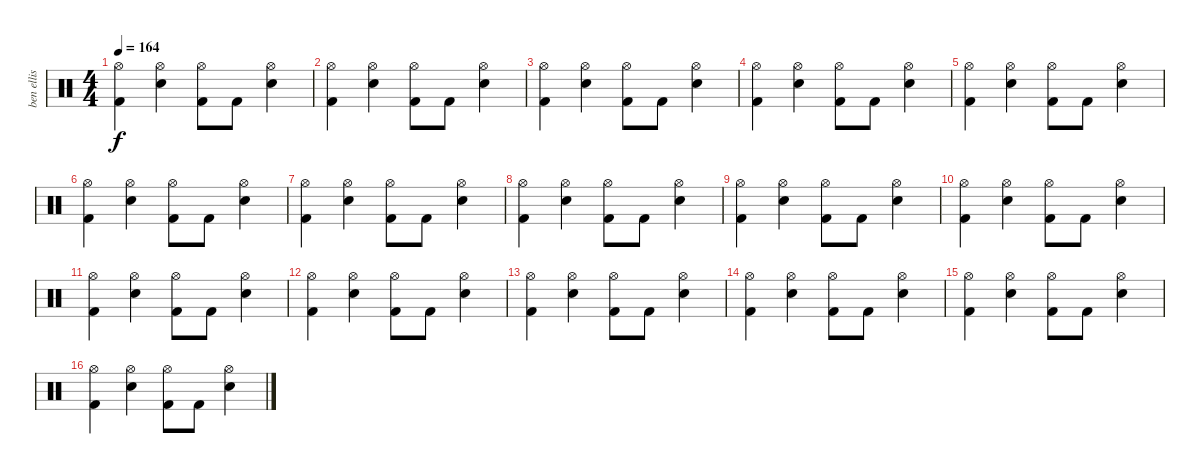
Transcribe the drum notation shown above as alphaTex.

\track ("ben ellis" "ben ellis") {instrument percussion}
\staff {score}
\articulation defaults
\ts (4 4)
\tempo 164
\clef neutral
\ks c
("Hi-Hat (open)" "Kick (hit) 2").4{dy f} ("Hi-Hat (open)" "Electric Snare (hit)").4 ("Hi-Hat (open)" "Kick (hit) 2").8 "Kick (hit) 2".8 ("Hi-Hat (open)" "Electric Snare (hit)").4 |
("Hi-Hat (open)" "Kick (hit) 2").4 ("Hi-Hat (open)" "Electric Snare (hit)").4 ("Hi-Hat (open)" "Kick (hit) 2").8 "Kick (hit) 2".8 ("Hi-Hat (open)" "Electric Snare (hit)").4 |
("Hi-Hat (open)" "Kick (hit) 2").4 ("Hi-Hat (open)" "Electric Snare (hit)").4 ("Hi-Hat (open)" "Kick (hit) 2").8 "Kick (hit) 2".8 ("Hi-Hat (open)" "Electric Snare (hit)").4 |
("Hi-Hat (open)" "Kick (hit) 2").4 ("Hi-Hat (open)" "Electric Snare (hit)").4 ("Hi-Hat (open)" "Kick (hit) 2").8 "Kick (hit) 2".8 ("Hi-Hat (open)" "Electric Snare (hit)").4 |
("Hi-Hat (open)" "Kick (hit) 2").4 ("Hi-Hat (open)" "Electric Snare (hit)").4 ("Hi-Hat (open)" "Kick (hit) 2").8 "Kick (hit) 2".8 ("Hi-Hat (open)" "Electric Snare (hit)").4 |
("Hi-Hat (open)" "Kick (hit) 2").4 ("Hi-Hat (open)" "Electric Snare (hit)").4 ("Hi-Hat (open)" "Kick (hit) 2").8 "Kick (hit) 2".8 ("Hi-Hat (open)" "Electric Snare (hit)").4 |
("Hi-Hat (open)" "Kick (hit) 2").4 ("Hi-Hat (open)" "Electric Snare (hit)").4 ("Hi-Hat (open)" "Kick (hit) 2").8 "Kick (hit) 2".8 ("Hi-Hat (open)" "Electric Snare (hit)").4 |
("Hi-Hat (open)" "Kick (hit) 2").4 ("Hi-Hat (open)" "Electric Snare (hit)").4 ("Hi-Hat (open)" "Kick (hit) 2").8 "Kick (hit) 2".8 ("Hi-Hat (open)" "Electric Snare (hit)").4 |
("Hi-Hat (open)" "Kick (hit) 2").4 ("Hi-Hat (open)" "Electric Snare (hit)").4 ("Hi-Hat (open)" "Kick (hit) 2").8 "Kick (hit) 2".8 ("Hi-Hat (open)" "Electric Snare (hit)").4 |
("Hi-Hat (open)" "Kick (hit) 2").4 ("Hi-Hat (open)" "Electric Snare (hit)").4 ("Hi-Hat (open)" "Kick (hit) 2").8 "Kick (hit) 2".8 ("Hi-Hat (open)" "Electric Snare (hit)").4 |
("Hi-Hat (open)" "Kick (hit) 2").4 ("Hi-Hat (open)" "Electric Snare (hit)").4 ("Hi-Hat (open)" "Kick (hit) 2").8 "Kick (hit) 2".8 ("Hi-Hat (open)" "Electric Snare (hit)").4 |
("Hi-Hat (open)" "Kick (hit) 2").4 ("Hi-Hat (open)" "Electric Snare (hit)").4 ("Hi-Hat (open)" "Kick (hit) 2").8 "Kick (hit) 2".8 ("Hi-Hat (open)" "Electric Snare (hit)").4 |
("Hi-Hat (open)" "Kick (hit) 2").4 ("Hi-Hat (open)" "Electric Snare (hit)").4 ("Hi-Hat (open)" "Kick (hit) 2").8 "Kick (hit) 2".8 ("Hi-Hat (open)" "Electric Snare (hit)").4 |
("Hi-Hat (open)" "Kick (hit) 2").4 ("Hi-Hat (open)" "Electric Snare (hit)").4 ("Hi-Hat (open)" "Kick (hit) 2").8 "Kick (hit) 2".8 ("Hi-Hat (open)" "Electric Snare (hit)").4 |
("Hi-Hat (open)" "Kick (hit) 2").4 ("Hi-Hat (open)" "Electric Snare (hit)").4 ("Hi-Hat (open)" "Kick (hit) 2").8 "Kick (hit) 2".8 ("Hi-Hat (open)" "Electric Snare (hit)").4 |
("Hi-Hat (open)" "Kick (hit) 2").4 ("Hi-Hat (open)" "Electric Snare (hit)").4 ("Hi-Hat (open)" "Kick (hit) 2").8 "Kick (hit) 2".8 ("Hi-Hat (open)" "Electric Snare (hit)").4
